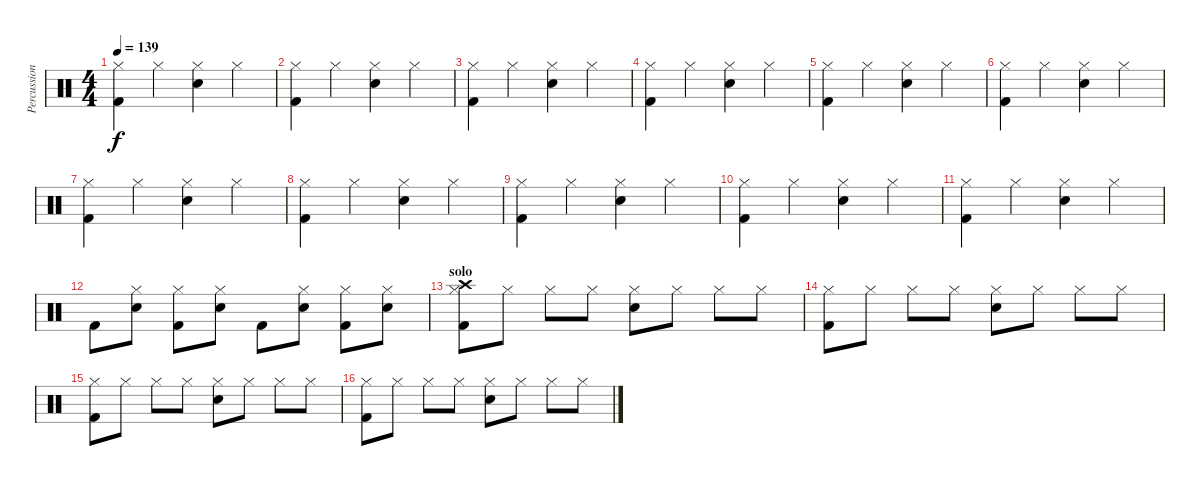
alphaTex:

\track ("Percussion" "Percussion") {instrument percussion}
\staff {score}
\articulation defaults
\ts (4 4)
\tempo 139
\clef neutral
\ks c
("Hi-Hat (closed)" "Kick (hit) 2").4{dy f} "Hi-Hat (closed)".4 ("Hi-Hat (closed)" "Snare (hit) 2").4 "Hi-Hat (closed)".4 |
("Hi-Hat (closed)" "Kick (hit) 2").4 "Hi-Hat (closed)".4 ("Hi-Hat (closed)" "Snare (hit) 2").4 "Hi-Hat (closed)".4 |
("Hi-Hat (closed)" "Kick (hit) 2").4 "Hi-Hat (closed)".4 ("Hi-Hat (closed)" "Snare (hit) 2").4 "Hi-Hat (closed)".4 |
("Hi-Hat (closed)" "Kick (hit) 2").4 "Hi-Hat (closed)".4 ("Hi-Hat (closed)" "Snare (hit) 2").4 "Hi-Hat (closed)".4 |
("Hi-Hat (closed)" "Kick (hit) 2").4 "Hi-Hat (closed)".4 ("Hi-Hat (closed)" "Snare (hit) 2").4 "Hi-Hat (closed)".4 |
("Hi-Hat (closed)" "Kick (hit) 2").4 "Hi-Hat (closed)".4 ("Hi-Hat (closed)" "Snare (hit) 2").4 "Hi-Hat (closed)".4 |
("Hi-Hat (closed)" "Kick (hit) 2").4 "Hi-Hat (closed)".4 ("Hi-Hat (closed)" "Snare (hit) 2").4 "Hi-Hat (closed)".4 |
("Hi-Hat (closed)" "Kick (hit) 2").4 "Hi-Hat (closed)".4 ("Hi-Hat (closed)" "Snare (hit) 2").4 "Hi-Hat (closed)".4 |
("Hi-Hat (closed)" "Kick (hit) 2").4 "Hi-Hat (closed)".4 ("Hi-Hat (closed)" "Snare (hit) 2").4 "Hi-Hat (closed)".4 |
("Hi-Hat (closed)" "Kick (hit) 2").4 "Hi-Hat (closed)".4 ("Hi-Hat (closed)" "Snare (hit) 2").4 "Hi-Hat (closed)".4 |
("Hi-Hat (closed)" "Kick (hit) 2").4 "Hi-Hat (closed)".4 ("Hi-Hat (closed)" "Snare (hit) 2").4 "Hi-Hat (closed)".4 |
"Kick (hit) 2".8 ("Hi-Hat (closed)" "Snare (hit) 2").8 ("Hi-Hat (closed)" "Kick (hit) 2").8 ("Hi-Hat (closed)" "Snare (hit) 2").8 "Kick (hit) 2".8 ("Hi-Hat (closed)" "Snare (hit) 2").8 ("Hi-Hat (closed)" "Kick (hit) 2").8 ("Hi-Hat (closed)" "Snare (hit) 2").8 |
\section ("" "solo")
("Crash high (hit)" "Hi-Hat (closed)" "Kick (hit) 2").8 "Hi-Hat (closed)".8 "Hi-Hat (closed)".8 "Hi-Hat (closed)".8 ("Hi-Hat (closed)" "Snare (hit) 2").8 "Hi-Hat (closed)".8 "Hi-Hat (closed)".8 "Hi-Hat (closed)".8 |
("Hi-Hat (closed)" "Kick (hit) 2").8 "Hi-Hat (closed)".8 "Hi-Hat (closed)".8 "Hi-Hat (closed)".8 ("Hi-Hat (closed)" "Snare (hit) 2").8 "Hi-Hat (closed)".8 "Hi-Hat (closed)".8 "Hi-Hat (closed)".8 |
("Hi-Hat (closed)" "Kick (hit) 2").8 "Hi-Hat (closed)".8 "Hi-Hat (closed)".8 "Hi-Hat (closed)".8 ("Hi-Hat (closed)" "Snare (hit) 2").8 "Hi-Hat (closed)".8 "Hi-Hat (closed)".8 "Hi-Hat (closed)".8 |
("Hi-Hat (closed)" "Kick (hit) 2").8 "Hi-Hat (closed)".8 "Hi-Hat (closed)".8 "Hi-Hat (closed)".8 ("Hi-Hat (closed)" "Snare (hit) 2").8 "Hi-Hat (closed)".8 "Hi-Hat (closed)".8 "Hi-Hat (closed)".8
